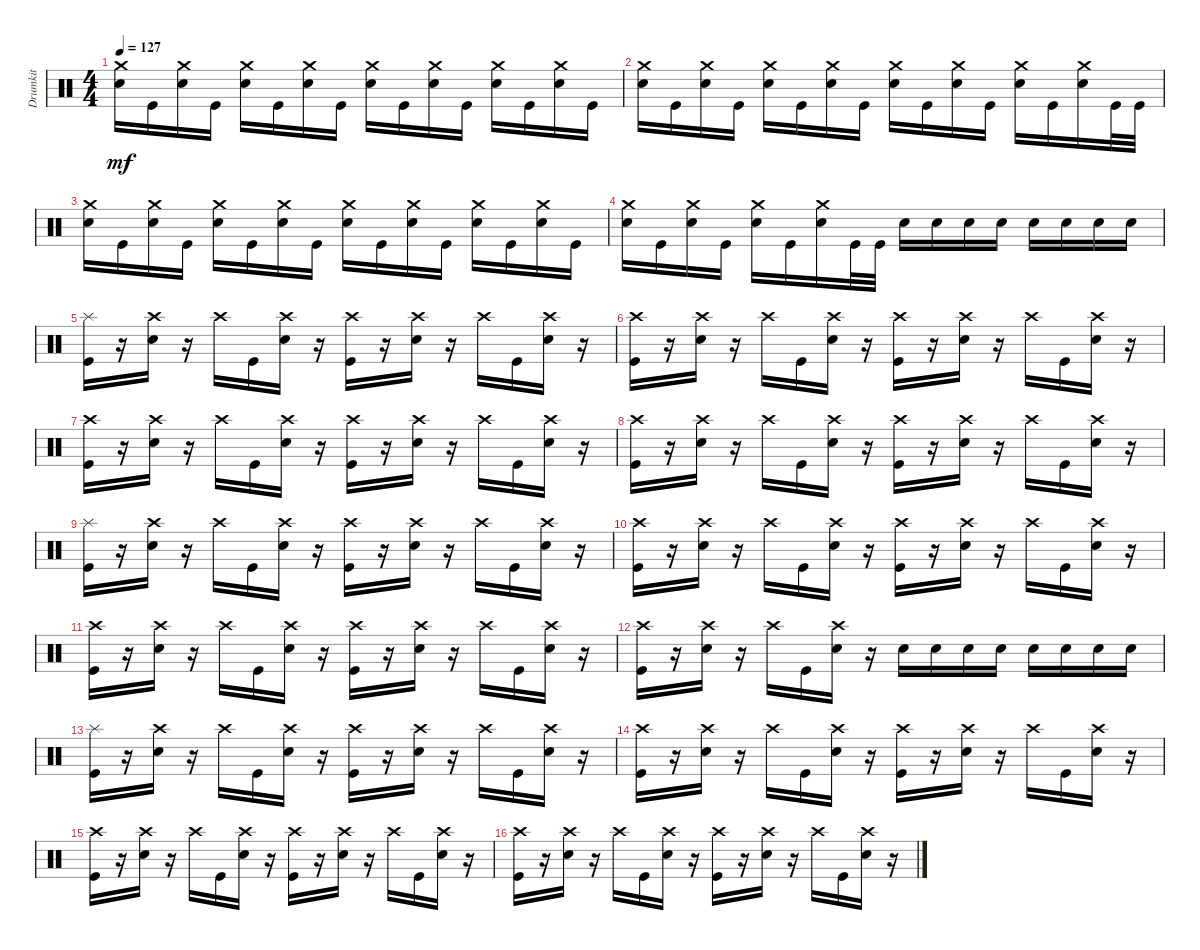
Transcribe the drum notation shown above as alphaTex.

\track ("Drumkit" "Drumkit") {instrument percussion}
\staff {score}
\articulation defaults
\ts (4 4)
\tempo 127
\clef neutral
\ks c
("Snare (hit) 2" "Crash medium (hit)").16{dy mf} "Kick (hit)".16 ("Snare (hit) 2" "Crash medium (hit)").16 "Kick (hit)".16 ("Snare (hit) 2" "Crash medium (hit)").16 "Kick (hit)".16 ("Snare (hit) 2" "Crash medium (hit)").16 "Kick (hit)".16 ("Snare (hit) 2" "Crash medium (hit)").16 "Kick (hit)".16 ("Snare (hit) 2" "Crash medium (hit)").16 "Kick (hit)".16 ("Snare (hit) 2" "Crash medium (hit)").16 "Kick (hit)".16 ("Snare (hit) 2" "Crash medium (hit)").16 "Kick (hit)".16 |
("Snare (hit) 2" "Crash medium (hit)").16 "Kick (hit)".16 ("Snare (hit) 2" "Crash medium (hit)").16 "Kick (hit)".16 ("Snare (hit) 2" "Crash medium (hit)").16 "Kick (hit)".16 ("Snare (hit) 2" "Crash medium (hit)").16 "Kick (hit)".16 ("Snare (hit) 2" "Crash medium (hit)").16 "Kick (hit)".16 ("Snare (hit) 2" "Crash medium (hit)").16 "Kick (hit)".16 ("Snare (hit) 2" "Crash medium (hit)").16 "Kick (hit)".16 ("Snare (hit) 2" "Crash medium (hit)").16 "Kick (hit)".32 "Kick (hit)".32 |
("Snare (hit) 2" "Crash medium (hit)").16 "Kick (hit)".16 ("Snare (hit) 2" "Crash medium (hit)").16 "Kick (hit)".16 ("Snare (hit) 2" "Crash medium (hit)").16 "Kick (hit)".16 ("Snare (hit) 2" "Crash medium (hit)").16 "Kick (hit)".16 ("Snare (hit) 2" "Crash medium (hit)").16 "Kick (hit)".16 ("Snare (hit) 2" "Crash medium (hit)").16 "Kick (hit)".16 ("Snare (hit) 2" "Crash medium (hit)").16 "Kick (hit)".16 ("Snare (hit) 2" "Crash medium (hit)").16 "Kick (hit)".16 |
("Snare (hit) 2" "Crash medium (hit)").16 "Kick (hit)".16 ("Snare (hit) 2" "Crash medium (hit)").16 "Kick (hit)".16 ("Snare (hit) 2" "Crash medium (hit)").16 "Kick (hit)".16 ("Snare (hit) 2" "Crash medium (hit)").16 "Kick (hit)".32 "Kick (hit)".32 "Snare (hit) 2".16 "Snare (hit) 2".16 "Snare (hit) 2".16 "Snare (hit) 2".16 "Snare (hit) 2".16 "Snare (hit) 2".16 "Snare (hit) 2".16 "Snare (hit) 2".16 |
("Kick (hit)" "Splash (hit)").16 r.16 ("Snare (hit) 2" "Crash high (hit)").16 r.16 "Crash high (hit)".16 "Kick (hit)".16 ("Snare (hit) 2" "Crash high (hit)").16 r.16 ("Kick (hit)" "Crash high (hit)").16 r.16 ("Snare (hit) 2" "Crash high (hit)").16 r.16 "Crash high (hit)".16 "Kick (hit)".16 ("Snare (hit) 2" "Crash high (hit)").16 r.16 |
("Kick (hit)" "Crash high (hit)").16 r.16 ("Snare (hit) 2" "Crash high (hit)").16 r.16 "Crash high (hit)".16 "Kick (hit)".16 ("Snare (hit) 2" "Crash high (hit)").16 r.16 ("Kick (hit)" "Crash high (hit)").16 r.16 ("Snare (hit) 2" "Crash high (hit)").16 r.16 "Crash high (hit)".16 "Kick (hit)".16 ("Snare (hit) 2" "Crash high (hit)").16 r.16 |
("Kick (hit)" "Crash high (hit)").16 r.16 ("Snare (hit) 2" "Crash high (hit)").16 r.16 "Crash high (hit)".16 "Kick (hit)".16 ("Snare (hit) 2" "Crash high (hit)").16 r.16 ("Kick (hit)" "Crash high (hit)").16 r.16 ("Snare (hit) 2" "Crash high (hit)").16 r.16 "Crash high (hit)".16 "Kick (hit)".16 ("Snare (hit) 2" "Crash high (hit)").16 r.16 |
("Kick (hit)" "Crash high (hit)").16 r.16 ("Snare (hit) 2" "Crash high (hit)").16 r.16 "Crash high (hit)".16 "Kick (hit)".16 ("Snare (hit) 2" "Crash high (hit)").16 r.16 ("Kick (hit)" "Crash high (hit)").16 r.16 ("Snare (hit) 2" "Crash high (hit)").16 r.16 "Crash high (hit)".16 "Kick (hit)".16 ("Snare (hit) 2" "Crash high (hit)").16 r.16 |
("Kick (hit)" "Splash (hit)").16 r.16 ("Snare (hit) 2" "Crash high (hit)").16 r.16 "Crash high (hit)".16 "Kick (hit)".16 ("Snare (hit) 2" "Crash high (hit)").16 r.16 ("Kick (hit)" "Crash high (hit)").16 r.16 ("Snare (hit) 2" "Crash high (hit)").16 r.16 "Crash high (hit)".16 "Kick (hit)".16 ("Snare (hit) 2" "Crash high (hit)").16 r.16 |
("Kick (hit)" "Crash high (hit)").16 r.16 ("Snare (hit) 2" "Crash high (hit)").16 r.16 "Crash high (hit)".16 "Kick (hit)".16 ("Snare (hit) 2" "Crash high (hit)").16 r.16 ("Kick (hit)" "Crash high (hit)").16 r.16 ("Snare (hit) 2" "Crash high (hit)").16 r.16 "Crash high (hit)".16 "Kick (hit)".16 ("Snare (hit) 2" "Crash high (hit)").16 r.16 |
("Kick (hit)" "Crash high (hit)").16 r.16 ("Snare (hit) 2" "Crash high (hit)").16 r.16 "Crash high (hit)".16 "Kick (hit)".16 ("Snare (hit) 2" "Crash high (hit)").16 r.16 ("Kick (hit)" "Crash high (hit)").16 r.16 ("Snare (hit) 2" "Crash high (hit)").16 r.16 "Crash high (hit)".16 "Kick (hit)".16 ("Snare (hit) 2" "Crash high (hit)").16 r.16 |
("Kick (hit)" "Crash high (hit)").16 r.16 ("Snare (hit) 2" "Crash high (hit)").16 r.16 "Crash high (hit)".16 "Kick (hit)".16 ("Snare (hit) 2" "Crash high (hit)").16 r.16 "Snare (hit) 2".16 "Snare (hit) 2".16 "Snare (hit) 2".16 "Snare (hit) 2".16 "Snare (hit) 2".16 "Snare (hit) 2".16 "Snare (hit) 2".16 "Snare (hit) 2".16 |
("Kick (hit)" "Splash (hit)").16 r.16 ("Snare (hit) 2" "Crash high (hit)").16 r.16 "Crash high (hit)".16 "Kick (hit)".16 ("Snare (hit) 2" "Crash high (hit)").16 r.16 ("Kick (hit)" "Crash high (hit)").16 r.16 ("Snare (hit) 2" "Crash high (hit)").16 r.16 "Crash high (hit)".16 "Kick (hit)".16 ("Snare (hit) 2" "Crash high (hit)").16 r.16 |
("Kick (hit)" "Crash high (hit)").16 r.16 ("Snare (hit) 2" "Crash high (hit)").16 r.16 "Crash high (hit)".16 "Kick (hit)".16 ("Snare (hit) 2" "Crash high (hit)").16 r.16 ("Kick (hit)" "Crash high (hit)").16 r.16 ("Snare (hit) 2" "Crash high (hit)").16 r.16 "Crash high (hit)".16 "Kick (hit)".16 ("Snare (hit) 2" "Crash high (hit)").16 r.16 |
("Kick (hit)" "Crash high (hit)").16 r.16 ("Snare (hit) 2" "Crash high (hit)").16 r.16 "Crash high (hit)".16 "Kick (hit)".16 ("Snare (hit) 2" "Crash high (hit)").16 r.16 ("Kick (hit)" "Crash high (hit)").16 r.16 ("Snare (hit) 2" "Crash high (hit)").16 r.16 "Crash high (hit)".16 "Kick (hit)".16 ("Snare (hit) 2" "Crash high (hit)").16 r.16 |
("Kick (hit)" "Crash high (hit)").16 r.16 ("Snare (hit) 2" "Crash high (hit)").16 r.16 "Crash high (hit)".16 "Kick (hit)".16 ("Snare (hit) 2" "Crash high (hit)").16 r.16 ("Kick (hit)" "Crash high (hit)").16 r.16 ("Snare (hit) 2" "Crash high (hit)").16 r.16 "Crash high (hit)".16 "Kick (hit)".16 ("Snare (hit) 2" "Crash high (hit)").16 r.16
